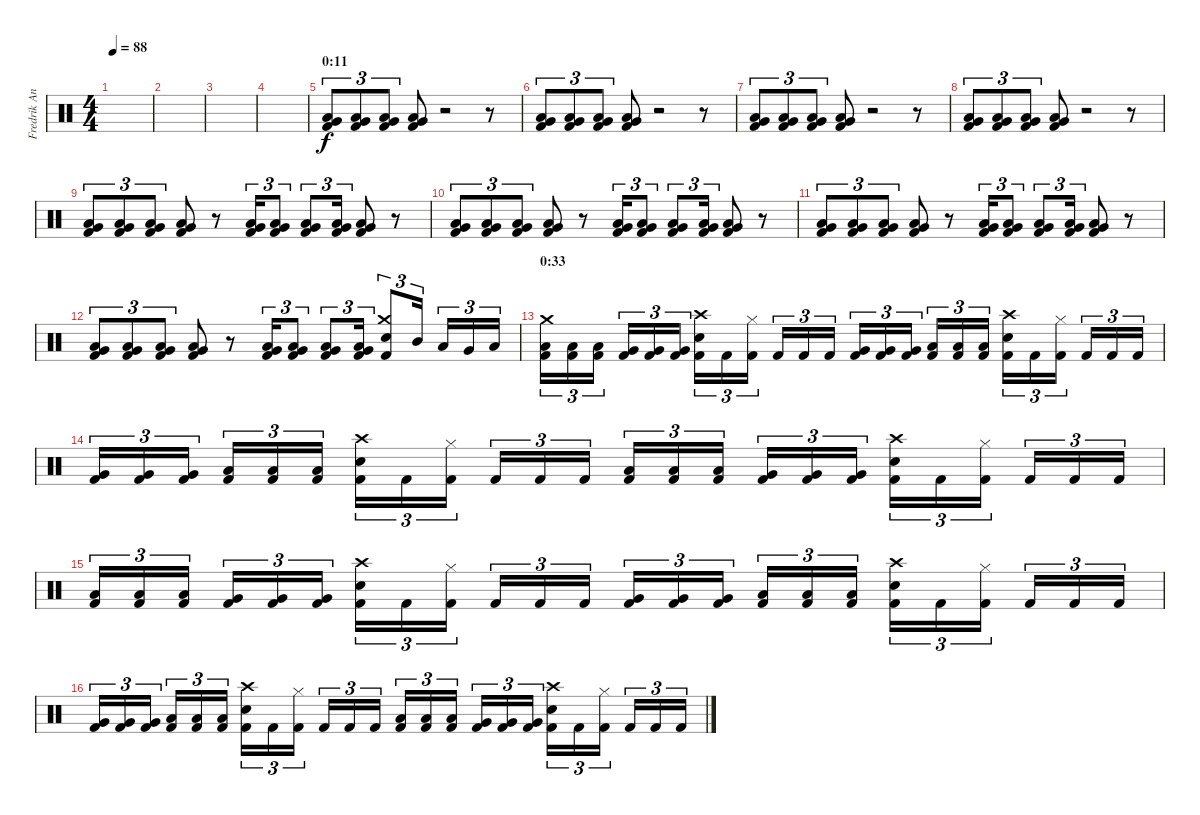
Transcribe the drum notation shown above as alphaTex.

\track ("Fredrik Andersson" "Fredrik An") {instrument percussion}
\staff {score}
\articulation defaults
\ts (4 4)
\tempo 88
\clef neutral
\ks c
|
|
|
|
\section ("" "0:11")
("Very Low Tom (hit)" "Low Floor Tom (hit)" "Kick (hit) 2").8{tu (3 2)} ("Very Low Tom (hit)" "Low Floor Tom (hit)" "Kick (hit) 2").8{tu (3 2)} ("Very Low Tom (hit)" "Low Floor Tom (hit)" "Kick (hit) 2").8{tu (3 2)} ("Very Low Tom (hit)" "Low Floor Tom (hit)" "Kick (hit) 2").8 r.2 r.8 |
("Low Tom (hit)" "Very Low Tom (hit)" "Kick (hit) 2").8{tu (3 2)} ("Low Tom (hit)" "Very Low Tom (hit)" "Kick (hit) 2").8{tu (3 2)} ("Low Tom (hit)" "Very Low Tom (hit)" "Kick (hit) 2").8{tu (3 2)} ("Low Tom (hit)" "Very Low Tom (hit)" "Kick (hit) 2").8 r.2 r.8 |
("Very Low Tom (hit)" "Low Floor Tom (hit)" "Kick (hit) 2").8{tu (3 2)} ("Very Low Tom (hit)" "Low Floor Tom (hit)" "Kick (hit) 2").8{tu (3 2)} ("Very Low Tom (hit)" "Low Floor Tom (hit)" "Kick (hit) 2").8{tu (3 2)} ("Very Low Tom (hit)" "Low Floor Tom (hit)" "Kick (hit) 2").8 r.2 r.8 |
("Low Tom (hit)" "Very Low Tom (hit)" "Kick (hit) 2").8{tu (3 2)} ("Low Tom (hit)" "Very Low Tom (hit)" "Kick (hit) 2").8{tu (3 2)} ("Low Tom (hit)" "Very Low Tom (hit)" "Kick (hit) 2").8{tu (3 2)} ("Low Tom (hit)" "Very Low Tom (hit)" "Kick (hit) 2").8 r.2 r.8 |
("Very Low Tom (hit)" "Low Floor Tom (hit)" "Kick (hit) 2").8{tu (3 2)} ("Very Low Tom (hit)" "Low Floor Tom (hit)" "Kick (hit) 2").8{tu (3 2)} ("Very Low Tom (hit)" "Low Floor Tom (hit)" "Kick (hit) 2").8{tu (3 2)} ("Very Low Tom (hit)" "Low Floor Tom (hit)" "Kick (hit) 2").8 r.8 ("Very Low Tom (hit)" "Low Floor Tom (hit)" "Kick (hit) 2").16{tu (3 2)} ("Very Low Tom (hit)" "Low Floor Tom (hit)" "Kick (hit) 2").8{tu (3 2)} ("Very Low Tom (hit)" "Low Floor Tom (hit)" "Kick (hit) 2").8{tu (3 2)} ("Very Low Tom (hit)" "Low Floor Tom (hit)" "Kick (hit) 2").16{tu (3 2)} ("Very Low Tom (hit)" "Low Floor Tom (hit)" "Kick (hit) 2").8 r.8 |
("Low Tom (hit)" "Very Low Tom (hit)" "Kick (hit) 2").8{tu (3 2)} ("Low Tom (hit)" "Very Low Tom (hit)" "Kick (hit) 2").8{tu (3 2)} ("Low Tom (hit)" "Very Low Tom (hit)" "Kick (hit) 2").8{tu (3 2)} ("Low Tom (hit)" "Very Low Tom (hit)" "Kick (hit) 2").8 r.8 ("Low Tom (hit)" "Very Low Tom (hit)" "Kick (hit) 2").16{tu (3 2)} ("Low Tom (hit)" "Very Low Tom (hit)" "Kick (hit) 2").8{tu (3 2)} ("Low Tom (hit)" "Very Low Tom (hit)" "Kick (hit) 2").8{tu (3 2)} ("Low Tom (hit)" "Very Low Tom (hit)" "Kick (hit) 2").16{tu (3 2)} ("Low Tom (hit)" "Very Low Tom (hit)" "Kick (hit) 2").8 r.8 |
("Very Low Tom (hit)" "Low Floor Tom (hit)" "Kick (hit) 2").8{tu (3 2)} ("Very Low Tom (hit)" "Low Floor Tom (hit)" "Kick (hit) 2").8{tu (3 2)} ("Very Low Tom (hit)" "Low Floor Tom (hit)" "Kick (hit) 2").8{tu (3 2)} ("Very Low Tom (hit)" "Low Floor Tom (hit)" "Kick (hit) 2").8 r.8 ("Very Low Tom (hit)" "Low Floor Tom (hit)" "Kick (hit) 2").16{tu (3 2)} ("Very Low Tom (hit)" "Low Floor Tom (hit)" "Kick (hit) 2").8{tu (3 2)} ("Very Low Tom (hit)" "Low Floor Tom (hit)" "Kick (hit) 2").8{tu (3 2)} ("Very Low Tom (hit)" "Low Floor Tom (hit)" "Kick (hit) 2").16{tu (3 2)} ("Very Low Tom (hit)" "Low Floor Tom (hit)" "Kick (hit) 2").8 r.8 |
("Low Tom (hit)" "Very Low Tom (hit)" "Kick (hit) 2").8{tu (3 2)} ("Low Tom (hit)" "Very Low Tom (hit)" "Kick (hit) 2").8{tu (3 2)} ("Low Tom (hit)" "Very Low Tom (hit)" "Kick (hit) 2").8{tu (3 2)} ("Low Tom (hit)" "Very Low Tom (hit)" "Kick (hit) 2").8 r.8 ("Low Tom (hit)" "Very Low Tom (hit)" "Kick (hit) 2").16{tu (3 2)} ("Low Tom (hit)" "Very Low Tom (hit)" "Kick (hit) 2").8{tu (3 2)} ("Low Tom (hit)" "Very Low Tom (hit)" "Kick (hit) 2").8{tu (3 2)} ("Low Tom (hit)" "Very Low Tom (hit)" "Kick (hit) 2").16{tu (3 2)} ("Crash medium (hit)" "Electric Snare (hit)" "Kick (hit) 2").8{tu (3 2)} "Mid Tom (hit)".16{tu (3 2)} "Low Tom (hit)".16{tu (3 2)} "Very Low Tom (hit)".16{tu (3 2)} "Low Tom (hit)".16{tu (3 2)} |
\section ("" "0:33")
("Crash medium (hit)" "Low Floor Tom (hit)" "Kick (hit) 2").16{tu (3 2)} ("Low Floor Tom (hit)" "Kick (hit) 2").16{tu (3 2)} ("Low Floor Tom (hit)" "Kick (hit) 2").16{tu (3 2)} ("Very Low Tom (hit)" "Kick (hit) 2").16{tu (3 2)} ("Very Low Tom (hit)" "Kick (hit) 2").16{tu (3 2)} ("Very Low Tom (hit)" "Kick (hit) 2").16{tu (3 2)} ("Crash high (hit)" "Electric Snare (hit)" "Kick (hit) 2").16{tu (3 2)} "Kick (hit) 2".16{tu (3 2)} ("Hi-Hat (closed)" "Kick (hit) 2").16{tu (3 2)} "Kick (hit) 2".16{tu (3 2)} "Kick (hit) 2".16{tu (3 2)} "Kick (hit) 2".16{tu (3 2)} ("Very Low Tom (hit)" "Kick (hit) 2").16{tu (3 2)} ("Very Low Tom (hit)" "Kick (hit) 2").16{tu (3 2)} ("Very Low Tom (hit)" "Kick (hit) 2").16{tu (3 2)} ("Low Floor Tom (hit)" "Kick (hit) 2").16{tu (3 2)} ("Low Floor Tom (hit)" "Kick (hit) 2").16{tu (3 2)} ("Low Floor Tom (hit)" "Kick (hit) 2").16{tu (3 2)} ("Crash high (hit)" "Electric Snare (hit)" "Kick (hit) 2").16{tu (3 2)} "Kick (hit) 2".16{tu (3 2)} ("Hi-Hat (closed)" "Kick (hit) 2").16{tu (3 2)} "Kick (hit) 2".16{tu (3 2)} "Kick (hit) 2".16{tu (3 2)} "Kick (hit) 2".16{tu (3 2)} |
("Very Low Tom (hit)" "Kick (hit) 2").16{tu (3 2)} ("Very Low Tom (hit)" "Kick (hit) 2").16{tu (3 2)} ("Very Low Tom (hit)" "Kick (hit) 2").16{tu (3 2)} ("Low Tom (hit)" "Kick (hit) 2").16{tu (3 2)} ("Low Tom (hit)" "Kick (hit) 2").16{tu (3 2)} ("Low Tom (hit)" "Kick (hit) 2").16{tu (3 2)} ("Crash high (hit)" "Electric Snare (hit)" "Kick (hit) 2").16{tu (3 2)} "Kick (hit) 2".16{tu (3 2)} ("Hi-Hat (closed)" "Kick (hit) 2").16{tu (3 2)} "Kick (hit) 2".16{tu (3 2)} "Kick (hit) 2".16{tu (3 2)} "Kick (hit) 2".16{tu (3 2)} ("Low Tom (hit)" "Kick (hit) 2").16{tu (3 2)} ("Low Tom (hit)" "Kick (hit) 2").16{tu (3 2)} ("Low Tom (hit)" "Kick (hit) 2").16{tu (3 2)} ("Very Low Tom (hit)" "Kick (hit) 2").16{tu (3 2)} ("Very Low Tom (hit)" "Kick (hit) 2").16{tu (3 2)} ("Very Low Tom (hit)" "Kick (hit) 2").16{tu (3 2)} ("Crash high (hit)" "Electric Snare (hit)" "Kick (hit) 2").16{tu (3 2)} "Kick (hit) 2".16{tu (3 2)} ("Hi-Hat (closed)" "Kick (hit) 2").16{tu (3 2)} "Kick (hit) 2".16{tu (3 2)} "Kick (hit) 2".16{tu (3 2)} "Kick (hit) 2".16{tu (3 2)} |
("Low Floor Tom (hit)" "Kick (hit) 2").16{tu (3 2)} ("Low Floor Tom (hit)" "Kick (hit) 2").16{tu (3 2)} ("Low Floor Tom (hit)" "Kick (hit) 2").16{tu (3 2)} ("Very Low Tom (hit)" "Kick (hit) 2").16{tu (3 2)} ("Very Low Tom (hit)" "Kick (hit) 2").16{tu (3 2)} ("Very Low Tom (hit)" "Kick (hit) 2").16{tu (3 2)} ("Crash high (hit)" "Electric Snare (hit)" "Kick (hit) 2").16{tu (3 2)} "Kick (hit) 2".16{tu (3 2)} ("Hi-Hat (closed)" "Kick (hit) 2").16{tu (3 2)} "Kick (hit) 2".16{tu (3 2)} "Kick (hit) 2".16{tu (3 2)} "Kick (hit) 2".16{tu (3 2)} ("Very Low Tom (hit)" "Kick (hit) 2").16{tu (3 2)} ("Very Low Tom (hit)" "Kick (hit) 2").16{tu (3 2)} ("Very Low Tom (hit)" "Kick (hit) 2").16{tu (3 2)} ("Low Floor Tom (hit)" "Kick (hit) 2").16{tu (3 2)} ("Low Floor Tom (hit)" "Kick (hit) 2").16{tu (3 2)} ("Low Floor Tom (hit)" "Kick (hit) 2").16{tu (3 2)} ("Crash high (hit)" "Electric Snare (hit)" "Kick (hit) 2").16{tu (3 2)} "Kick (hit) 2".16{tu (3 2)} ("Hi-Hat (closed)" "Kick (hit) 2").16{tu (3 2)} "Kick (hit) 2".16{tu (3 2)} "Kick (hit) 2".16{tu (3 2)} "Kick (hit) 2".16{tu (3 2)} |
("Very Low Tom (hit)" "Kick (hit) 2").16{tu (3 2)} ("Very Low Tom (hit)" "Kick (hit) 2").16{tu (3 2)} ("Very Low Tom (hit)" "Kick (hit) 2").16{tu (3 2)} ("Low Tom (hit)" "Kick (hit) 2").16{tu (3 2)} ("Low Tom (hit)" "Kick (hit) 2").16{tu (3 2)} ("Low Tom (hit)" "Kick (hit) 2").16{tu (3 2)} ("Crash high (hit)" "Electric Snare (hit)" "Kick (hit) 2").16{tu (3 2)} "Kick (hit) 2".16{tu (3 2)} ("Hi-Hat (closed)" "Kick (hit) 2").16{tu (3 2)} "Kick (hit) 2".16{tu (3 2)} "Kick (hit) 2".16{tu (3 2)} "Kick (hit) 2".16{tu (3 2)} ("Low Tom (hit)" "Kick (hit) 2").16{tu (3 2)} ("Low Tom (hit)" "Kick (hit) 2").16{tu (3 2)} ("Low Tom (hit)" "Kick (hit) 2").16{tu (3 2)} ("Very Low Tom (hit)" "Kick (hit) 2").16{tu (3 2)} ("Very Low Tom (hit)" "Kick (hit) 2").16{tu (3 2)} ("Very Low Tom (hit)" "Kick (hit) 2").16{tu (3 2)} ("Crash high (hit)" "Electric Snare (hit)" "Kick (hit) 2").16{tu (3 2)} "Kick (hit) 2".16{tu (3 2)} ("Hi-Hat (closed)" "Kick (hit) 2").16{tu (3 2)} "Kick (hit) 2".16{tu (3 2)} "Kick (hit) 2".16{tu (3 2)} "Kick (hit) 2".16{tu (3 2)}
